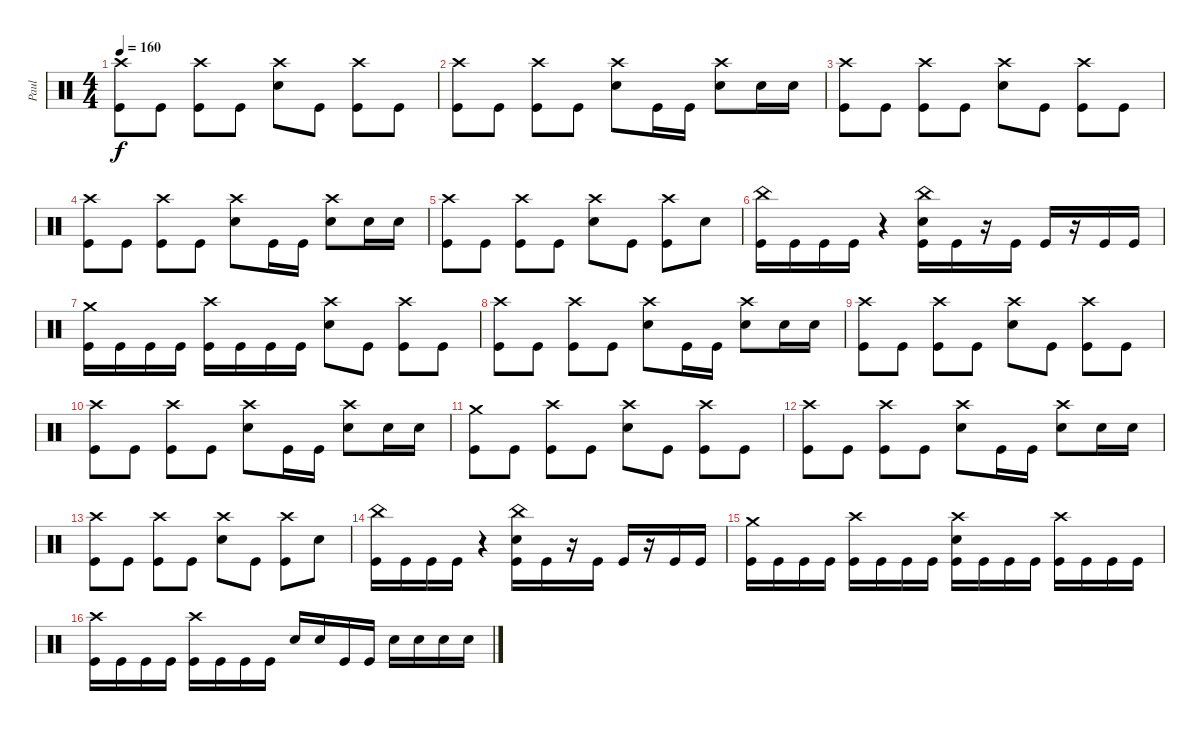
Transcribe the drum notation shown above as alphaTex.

\track ("Paul" "Paul") {instrument percussion}
\staff {score}
\articulation defaults
\ts (4 4)
\tempo 160
\clef neutral
\ks c
("Crash high (hit)" "Kick (hit)").8{dy f} "Kick (hit)".8 ("Crash high (hit)" "Kick (hit)").8 "Kick (hit)".8 ("Crash high (hit)" "Electric Snare (hit)").8 "Kick (hit)".8 ("Crash high (hit)" "Kick (hit)").8 "Kick (hit)".8 |
("Crash high (hit)" "Kick (hit)").8 "Kick (hit)".8 ("Crash high (hit)" "Kick (hit)").8 "Kick (hit)".8 ("Crash high (hit)" "Electric Snare (hit)").8 "Kick (hit)".16 "Kick (hit)".16 ("Crash high (hit)" "Electric Snare (hit)").8 "Electric Snare (hit)".16 "Electric Snare (hit)".16 |
("Crash high (hit)" "Kick (hit)").8 "Kick (hit)".8 ("Crash high (hit)" "Kick (hit)").8 "Kick (hit)".8 ("Crash high (hit)" "Electric Snare (hit)").8 "Kick (hit)".8 ("Crash high (hit)" "Kick (hit)").8 "Kick (hit)".8 |
("Crash high (hit)" "Kick (hit)").8 "Kick (hit)".8 ("Crash high (hit)" "Kick (hit)").8 "Kick (hit)".8 ("Crash high (hit)" "Electric Snare (hit)").8 "Kick (hit)".16 "Kick (hit)".16 ("Crash high (hit)" "Electric Snare (hit)").8 "Electric Snare (hit)".16 "Electric Snare (hit)".16 |
("Crash high (hit)" "Kick (hit)").8 "Kick (hit)".8 ("Crash high (hit)" "Kick (hit)").8 "Kick (hit)".8 ("Crash high (hit)" "Electric Snare (hit)").8 "Kick (hit)".8 ("Crash high (hit)" "Kick (hit)").8 "Electric Snare (hit)".8 |
("China (hit)" "Kick (hit)").16 "Kick (hit)".16 "Kick (hit)".16 "Kick (hit)".16 r.4 ("China (hit)" "Electric Snare (hit)" "Kick (hit)").16 "Kick (hit)".16 r.16 "Kick (hit)".16 "Kick (hit)".16 r.16 "Kick (hit)".16 "Kick (hit)".16 |
("Crash medium (hit)" "Kick (hit)").16 "Kick (hit)".16 "Kick (hit)".16 "Kick (hit)".16 ("Crash high (hit)" "Kick (hit)").16 "Kick (hit)".16 "Kick (hit)".16 "Kick (hit)".16 ("Crash high (hit)" "Electric Snare (hit)").8 "Kick (hit)".8 ("Crash high (hit)" "Kick (hit)").8 "Kick (hit)".8 |
("Crash high (hit)" "Kick (hit)").8 "Kick (hit)".8 ("Crash high (hit)" "Kick (hit)").8 "Kick (hit)".8 ("Crash high (hit)" "Electric Snare (hit)").8 "Kick (hit)".16 "Kick (hit)".16 ("Crash high (hit)" "Electric Snare (hit)").8 "Electric Snare (hit)".16 "Electric Snare (hit)".16 |
("Crash high (hit)" "Kick (hit)").8 "Kick (hit)".8 ("Crash high (hit)" "Kick (hit)").8 "Kick (hit)".8 ("Crash high (hit)" "Electric Snare (hit)").8 "Kick (hit)".8 ("Crash high (hit)" "Kick (hit)").8 "Kick (hit)".8 |
("Crash high (hit)" "Kick (hit)").8 "Kick (hit)".8 ("Crash high (hit)" "Kick (hit)").8 "Kick (hit)".8 ("Crash high (hit)" "Electric Snare (hit)").8 "Kick (hit)".16 "Kick (hit)".16 ("Crash high (hit)" "Electric Snare (hit)").8 "Electric Snare (hit)".16 "Electric Snare (hit)".16 |
("Crash medium (hit)" "Kick (hit)").8 "Kick (hit)".8 ("Crash high (hit)" "Kick (hit)").8 "Kick (hit)".8 ("Crash high (hit)" "Electric Snare (hit)").8 "Kick (hit)".8 ("Crash high (hit)" "Kick (hit)").8 "Kick (hit)".8 |
("Crash high (hit)" "Kick (hit)").8 "Kick (hit)".8 ("Crash high (hit)" "Kick (hit)").8 "Kick (hit)".8 ("Crash high (hit)" "Electric Snare (hit)").8 "Kick (hit)".16 "Kick (hit)".16 ("Crash high (hit)" "Electric Snare (hit)").8 "Electric Snare (hit)".16 "Electric Snare (hit)".16 |
("Crash high (hit)" "Kick (hit)").8 "Kick (hit)".8 ("Crash high (hit)" "Kick (hit)").8 "Kick (hit)".8 ("Crash high (hit)" "Electric Snare (hit)").8 "Kick (hit)".8 ("Crash high (hit)" "Kick (hit)").8 "Electric Snare (hit)".8 |
("China (hit)" "Kick (hit)").16 "Kick (hit)".16 "Kick (hit)".16 "Kick (hit)".16 r.4 ("China (hit)" "Electric Snare (hit)" "Kick (hit)").16 "Kick (hit)".16 r.16 "Kick (hit)".16 "Kick (hit)".16 r.16 "Kick (hit)".16 "Kick (hit)".16 |
("Crash medium (hit)" "Kick (hit)").16 "Kick (hit)".16 "Kick (hit)".16 "Kick (hit)".16 ("Crash high (hit)" "Kick (hit)").16 "Kick (hit)".16 "Kick (hit)".16 "Kick (hit)".16 ("Crash high (hit)" "Electric Snare (hit)" "Kick (hit)").16 "Kick (hit)".16 "Kick (hit)".16 "Kick (hit)".16 ("Crash high (hit)" "Kick (hit)").16 "Kick (hit)".16 "Kick (hit)".16 "Kick (hit)".16 |
("Crash high (hit)" "Kick (hit)").16 "Kick (hit)".16 "Kick (hit)".16 "Kick (hit)".16 ("Crash high (hit)" "Kick (hit)").16 "Kick (hit)".16 "Kick (hit)".16 "Kick (hit)".16 "Electric Snare (hit)".16 "Electric Snare (hit)".16 "Kick (hit)".16 "Kick (hit)".16 "Electric Snare (hit)".16 "Electric Snare (hit)".16 "Electric Snare (hit)".16 "Electric Snare (hit)".16
